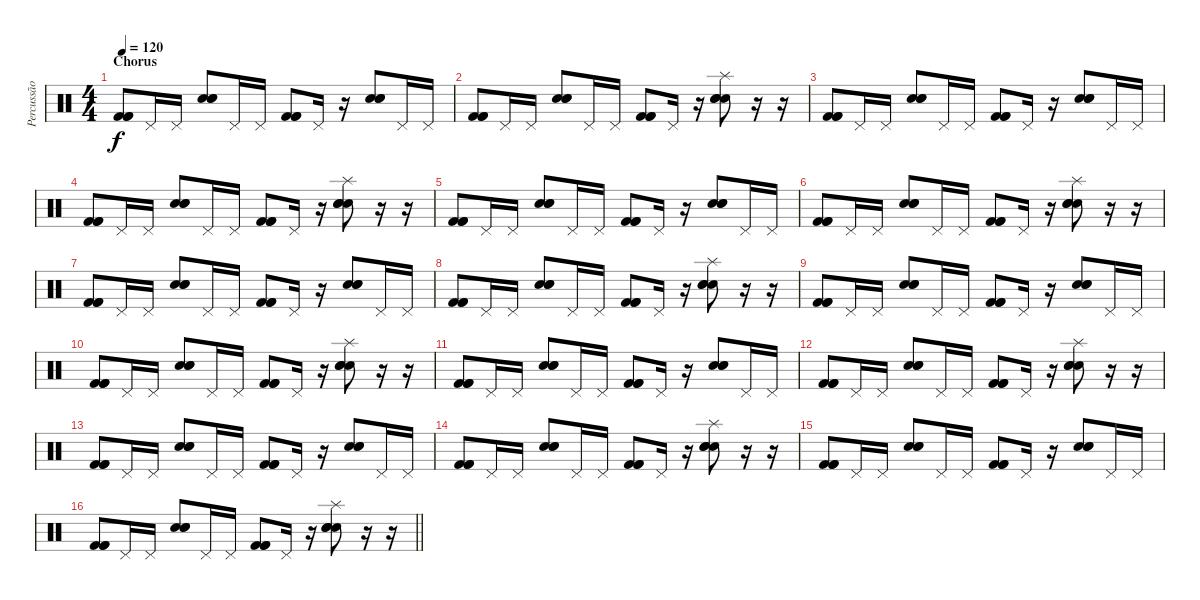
\track ("Percussão" "Percussão") {instrument percussion}
\staff {score}
\articulation defaults
\ts (4 4)
\section ("" "Chorus")
\tempo 120
\clef neutral
\ks c
("Kick (hit) 2" "Kick (hit) 2" "Kick (hit) 2").8{dy f volume 16} "Pedal Hi-Hat (hit)".16 "Pedal Hi-Hat (hit)".16 ("Hand Clap (hit)" "Hand Clap (hit)" "Hand Clap (hit)").8 "Pedal Hi-Hat (hit)".16 "Pedal Hi-Hat (hit)".16 ("Kick (hit) 2" "Kick (hit) 2" "Kick (hit) 2").8 "Pedal Hi-Hat (hit)".16 r.16 ("Hand Clap (hit)" "Hand Clap (hit)" "Hand Clap (hit)").8 "Pedal Hi-Hat (hit)".16 "Pedal Hi-Hat (hit)".16 |
("Kick (hit) 2" "Kick (hit) 2" "Kick (hit) 2").8 "Pedal Hi-Hat (hit)".16 "Pedal Hi-Hat (hit)".16 ("Hand Clap (hit)" "Hand Clap (hit)" "Hand Clap (hit)").8 "Pedal Hi-Hat (hit)".16 "Pedal Hi-Hat (hit)".16 ("Kick (hit) 2" "Kick (hit) 2" "Kick (hit) 2").8 "Pedal Hi-Hat (hit)".16 r.16 ("Splash (hit)" "Hand Clap (hit)" "Hand Clap (hit)" "Hand Clap (hit)").8 r.16 r.16 |
("Kick (hit) 2" "Kick (hit) 2" "Kick (hit) 2").8 "Pedal Hi-Hat (hit)".16 "Pedal Hi-Hat (hit)".16 ("Hand Clap (hit)" "Hand Clap (hit)" "Hand Clap (hit)").8 "Pedal Hi-Hat (hit)".16 "Pedal Hi-Hat (hit)".16 ("Kick (hit) 2" "Kick (hit) 2" "Kick (hit) 2").8 "Pedal Hi-Hat (hit)".16 r.16 ("Hand Clap (hit)" "Hand Clap (hit)" "Hand Clap (hit)").8 "Pedal Hi-Hat (hit)".16 "Pedal Hi-Hat (hit)".16 |
("Kick (hit) 2" "Kick (hit) 2" "Kick (hit) 2").8 "Pedal Hi-Hat (hit)".16 "Pedal Hi-Hat (hit)".16 ("Hand Clap (hit)" "Hand Clap (hit)" "Hand Clap (hit)").8 "Pedal Hi-Hat (hit)".16 "Pedal Hi-Hat (hit)".16 ("Kick (hit) 2" "Kick (hit) 2" "Kick (hit) 2").8 "Pedal Hi-Hat (hit)".16 r.16 ("Splash (hit)" "Hand Clap (hit)" "Hand Clap (hit)" "Hand Clap (hit)").8 r.16 r.16 |
("Kick (hit) 2" "Kick (hit) 2" "Kick (hit) 2").8 "Pedal Hi-Hat (hit)".16 "Pedal Hi-Hat (hit)".16 ("Hand Clap (hit)" "Hand Clap (hit)" "Hand Clap (hit)").8 "Pedal Hi-Hat (hit)".16 "Pedal Hi-Hat (hit)".16 ("Kick (hit) 2" "Kick (hit) 2" "Kick (hit) 2").8 "Pedal Hi-Hat (hit)".16 r.16 ("Hand Clap (hit)" "Hand Clap (hit)" "Hand Clap (hit)").8 "Pedal Hi-Hat (hit)".16 "Pedal Hi-Hat (hit)".16 |
("Kick (hit) 2" "Kick (hit) 2" "Kick (hit) 2").8 "Pedal Hi-Hat (hit)".16 "Pedal Hi-Hat (hit)".16 ("Hand Clap (hit)" "Hand Clap (hit)" "Hand Clap (hit)").8 "Pedal Hi-Hat (hit)".16 "Pedal Hi-Hat (hit)".16 ("Kick (hit) 2" "Kick (hit) 2" "Kick (hit) 2").8 "Pedal Hi-Hat (hit)".16 r.16 ("Splash (hit)" "Hand Clap (hit)" "Hand Clap (hit)" "Hand Clap (hit)").8 r.16 r.16 |
("Kick (hit) 2" "Kick (hit) 2" "Kick (hit) 2").8 "Pedal Hi-Hat (hit)".16 "Pedal Hi-Hat (hit)".16 ("Hand Clap (hit)" "Hand Clap (hit)" "Hand Clap (hit)").8 "Pedal Hi-Hat (hit)".16 "Pedal Hi-Hat (hit)".16 ("Kick (hit) 2" "Kick (hit) 2" "Kick (hit) 2").8 "Pedal Hi-Hat (hit)".16 r.16 ("Hand Clap (hit)" "Hand Clap (hit)" "Hand Clap (hit)").8 "Pedal Hi-Hat (hit)".16 "Pedal Hi-Hat (hit)".16 |
("Kick (hit) 2" "Kick (hit) 2" "Kick (hit) 2").8 "Pedal Hi-Hat (hit)".16 "Pedal Hi-Hat (hit)".16 ("Hand Clap (hit)" "Hand Clap (hit)" "Hand Clap (hit)").8 "Pedal Hi-Hat (hit)".16 "Pedal Hi-Hat (hit)".16 ("Kick (hit) 2" "Kick (hit) 2" "Kick (hit) 2").8 "Pedal Hi-Hat (hit)".16 r.16 ("Splash (hit)" "Hand Clap (hit)" "Hand Clap (hit)" "Hand Clap (hit)").8 r.16 r.16 |
("Kick (hit) 2" "Kick (hit) 2" "Kick (hit) 2").8 "Pedal Hi-Hat (hit)".16 "Pedal Hi-Hat (hit)".16 ("Hand Clap (hit)" "Hand Clap (hit)" "Hand Clap (hit)").8 "Pedal Hi-Hat (hit)".16 "Pedal Hi-Hat (hit)".16 ("Kick (hit) 2" "Kick (hit) 2" "Kick (hit) 2").8 "Pedal Hi-Hat (hit)".16 r.16 ("Hand Clap (hit)" "Hand Clap (hit)" "Hand Clap (hit)").8 "Pedal Hi-Hat (hit)".16 "Pedal Hi-Hat (hit)".16 |
("Kick (hit) 2" "Kick (hit) 2" "Kick (hit) 2").8 "Pedal Hi-Hat (hit)".16 "Pedal Hi-Hat (hit)".16 ("Hand Clap (hit)" "Hand Clap (hit)" "Hand Clap (hit)").8 "Pedal Hi-Hat (hit)".16 "Pedal Hi-Hat (hit)".16 ("Kick (hit) 2" "Kick (hit) 2" "Kick (hit) 2").8 "Pedal Hi-Hat (hit)".16 r.16 ("Splash (hit)" "Hand Clap (hit)" "Hand Clap (hit)" "Hand Clap (hit)").8 r.16 r.16 |
("Kick (hit) 2" "Kick (hit) 2" "Kick (hit) 2").8 "Pedal Hi-Hat (hit)".16 "Pedal Hi-Hat (hit)".16 ("Hand Clap (hit)" "Hand Clap (hit)" "Hand Clap (hit)").8 "Pedal Hi-Hat (hit)".16 "Pedal Hi-Hat (hit)".16 ("Kick (hit) 2" "Kick (hit) 2" "Kick (hit) 2").8 "Pedal Hi-Hat (hit)".16 r.16 ("Hand Clap (hit)" "Hand Clap (hit)" "Hand Clap (hit)").8 "Pedal Hi-Hat (hit)".16 "Pedal Hi-Hat (hit)".16 |
("Kick (hit) 2" "Kick (hit) 2" "Kick (hit) 2").8 "Pedal Hi-Hat (hit)".16 "Pedal Hi-Hat (hit)".16 ("Hand Clap (hit)" "Hand Clap (hit)" "Hand Clap (hit)").8 "Pedal Hi-Hat (hit)".16 "Pedal Hi-Hat (hit)".16 ("Kick (hit) 2" "Kick (hit) 2" "Kick (hit) 2").8 "Pedal Hi-Hat (hit)".16 r.16 ("Splash (hit)" "Hand Clap (hit)" "Hand Clap (hit)" "Hand Clap (hit)").8 r.16 r.16 |
("Kick (hit) 2" "Kick (hit) 2" "Kick (hit) 2").8 "Pedal Hi-Hat (hit)".16 "Pedal Hi-Hat (hit)".16 ("Hand Clap (hit)" "Hand Clap (hit)" "Hand Clap (hit)").8 "Pedal Hi-Hat (hit)".16 "Pedal Hi-Hat (hit)".16 ("Kick (hit) 2" "Kick (hit) 2" "Kick (hit) 2").8 "Pedal Hi-Hat (hit)".16 r.16 ("Hand Clap (hit)" "Hand Clap (hit)" "Hand Clap (hit)").8 "Pedal Hi-Hat (hit)".16 "Pedal Hi-Hat (hit)".16 |
("Kick (hit) 2" "Kick (hit) 2" "Kick (hit) 2").8 "Pedal Hi-Hat (hit)".16 "Pedal Hi-Hat (hit)".16 ("Hand Clap (hit)" "Hand Clap (hit)" "Hand Clap (hit)").8 "Pedal Hi-Hat (hit)".16 "Pedal Hi-Hat (hit)".16 ("Kick (hit) 2" "Kick (hit) 2" "Kick (hit) 2").8 "Pedal Hi-Hat (hit)".16 r.16 ("Splash (hit)" "Hand Clap (hit)" "Hand Clap (hit)" "Hand Clap (hit)").8 r.16 r.16 |
("Kick (hit) 2" "Kick (hit) 2" "Kick (hit) 2").8 "Pedal Hi-Hat (hit)".16 "Pedal Hi-Hat (hit)".16 ("Hand Clap (hit)" "Hand Clap (hit)" "Hand Clap (hit)").8 "Pedal Hi-Hat (hit)".16 "Pedal Hi-Hat (hit)".16 ("Kick (hit) 2" "Kick (hit) 2" "Kick (hit) 2").8 "Pedal Hi-Hat (hit)".16 r.16 ("Hand Clap (hit)" "Hand Clap (hit)" "Hand Clap (hit)").8 "Pedal Hi-Hat (hit)".16 "Pedal Hi-Hat (hit)".16 |
\barLineRight lightlight
("Kick (hit) 2" "Kick (hit) 2" "Kick (hit) 2").8 "Pedal Hi-Hat (hit)".16 "Pedal Hi-Hat (hit)".16 ("Hand Clap (hit)" "Hand Clap (hit)" "Hand Clap (hit)").8 "Pedal Hi-Hat (hit)".16 "Pedal Hi-Hat (hit)".16 ("Kick (hit) 2" "Kick (hit) 2" "Kick (hit) 2").8 "Pedal Hi-Hat (hit)".16 r.16 ("Splash (hit)" "Hand Clap (hit)" "Hand Clap (hit)" "Hand Clap (hit)").8 r.16 r.16
